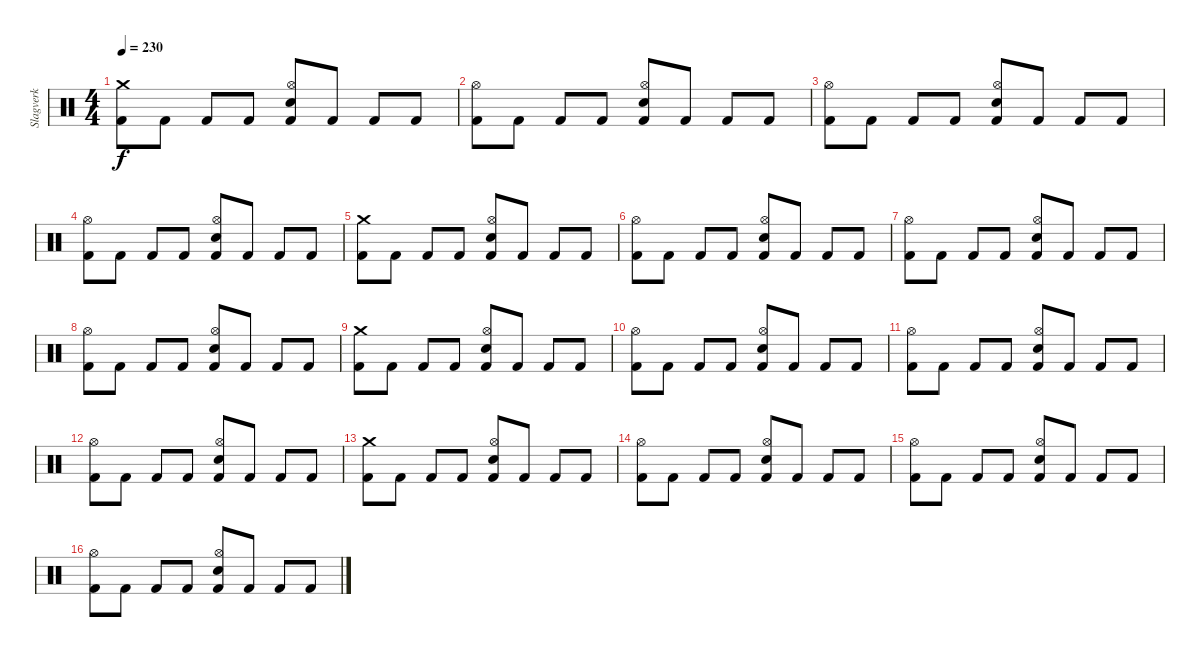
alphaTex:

\track ("Slagverk" "Slagverk") {instrument percussion}
\staff {score}
\articulation defaults
\ts (4 4)
\tempo 230
\clef neutral
\ks c
("Crash medium (hit)" "Kick (hit) 2").8{dy f} "Kick (hit) 2".8 "Kick (hit) 2".8 "Kick (hit) 2".8 ("Hi-Hat (open)" "Kick (hit) 2" "Snare (hit) 2").8 "Kick (hit) 2".8 "Kick (hit) 2".8 "Kick (hit) 2".8 |
("Kick (hit) 2" "Hi-Hat (open)").8 "Kick (hit) 2".8 "Kick (hit) 2".8 "Kick (hit) 2".8 ("Hi-Hat (open)" "Kick (hit) 2" "Snare (hit) 2").8 "Kick (hit) 2".8 "Kick (hit) 2".8 "Kick (hit) 2".8 |
("Kick (hit) 2" "Hi-Hat (open)").8 "Kick (hit) 2".8 "Kick (hit) 2".8 "Kick (hit) 2".8 ("Hi-Hat (open)" "Kick (hit) 2" "Snare (hit) 2").8 "Kick (hit) 2".8 "Kick (hit) 2".8 "Kick (hit) 2".8 |
("Kick (hit) 2" "Hi-Hat (open)").8 "Kick (hit) 2".8 "Kick (hit) 2".8 "Kick (hit) 2".8 ("Hi-Hat (open)" "Kick (hit) 2" "Snare (hit) 2").8 "Kick (hit) 2".8 "Kick (hit) 2".8 "Kick (hit) 2".8 |
("Crash medium (hit)" "Kick (hit) 2").8 "Kick (hit) 2".8 "Kick (hit) 2".8 "Kick (hit) 2".8 ("Hi-Hat (open)" "Kick (hit) 2" "Snare (hit) 2").8 "Kick (hit) 2".8 "Kick (hit) 2".8 "Kick (hit) 2".8 |
("Kick (hit) 2" "Hi-Hat (open)").8 "Kick (hit) 2".8 "Kick (hit) 2".8 "Kick (hit) 2".8 ("Hi-Hat (open)" "Kick (hit) 2" "Snare (hit) 2").8 "Kick (hit) 2".8 "Kick (hit) 2".8 "Kick (hit) 2".8 |
("Kick (hit) 2" "Hi-Hat (open)").8 "Kick (hit) 2".8 "Kick (hit) 2".8 "Kick (hit) 2".8 ("Hi-Hat (open)" "Kick (hit) 2" "Snare (hit) 2").8 "Kick (hit) 2".8 "Kick (hit) 2".8 "Kick (hit) 2".8 |
("Kick (hit) 2" "Hi-Hat (open)").8 "Kick (hit) 2".8 "Kick (hit) 2".8 "Kick (hit) 2".8 ("Hi-Hat (open)" "Kick (hit) 2" "Snare (hit) 2").8 "Kick (hit) 2".8 "Kick (hit) 2".8 "Kick (hit) 2".8 |
("Crash medium (hit)" "Kick (hit) 2").8 "Kick (hit) 2".8 "Kick (hit) 2".8 "Kick (hit) 2".8 ("Hi-Hat (open)" "Kick (hit) 2" "Snare (hit) 2").8 "Kick (hit) 2".8 "Kick (hit) 2".8 "Kick (hit) 2".8 |
("Kick (hit) 2" "Hi-Hat (open)").8 "Kick (hit) 2".8 "Kick (hit) 2".8 "Kick (hit) 2".8 ("Hi-Hat (open)" "Kick (hit) 2" "Snare (hit) 2").8 "Kick (hit) 2".8 "Kick (hit) 2".8 "Kick (hit) 2".8 |
("Kick (hit) 2" "Hi-Hat (open)").8 "Kick (hit) 2".8 "Kick (hit) 2".8 "Kick (hit) 2".8 ("Hi-Hat (open)" "Kick (hit) 2" "Snare (hit) 2").8 "Kick (hit) 2".8 "Kick (hit) 2".8 "Kick (hit) 2".8 |
("Kick (hit) 2" "Hi-Hat (open)").8 "Kick (hit) 2".8 "Kick (hit) 2".8 "Kick (hit) 2".8 ("Hi-Hat (open)" "Kick (hit) 2" "Snare (hit) 2").8 "Kick (hit) 2".8 "Kick (hit) 2".8 "Kick (hit) 2".8 |
("Crash medium (hit)" "Kick (hit) 2").8 "Kick (hit) 2".8 "Kick (hit) 2".8 "Kick (hit) 2".8 ("Hi-Hat (open)" "Kick (hit) 2" "Snare (hit) 2").8 "Kick (hit) 2".8 "Kick (hit) 2".8 "Kick (hit) 2".8 |
("Kick (hit) 2" "Hi-Hat (open)").8 "Kick (hit) 2".8 "Kick (hit) 2".8 "Kick (hit) 2".8 ("Hi-Hat (open)" "Kick (hit) 2" "Snare (hit) 2").8 "Kick (hit) 2".8 "Kick (hit) 2".8 "Kick (hit) 2".8 |
("Kick (hit) 2" "Hi-Hat (open)").8 "Kick (hit) 2".8 "Kick (hit) 2".8 "Kick (hit) 2".8 ("Hi-Hat (open)" "Kick (hit) 2" "Snare (hit) 2").8 "Kick (hit) 2".8 "Kick (hit) 2".8 "Kick (hit) 2".8 |
("Kick (hit) 2" "Hi-Hat (open)").8 "Kick (hit) 2".8 "Kick (hit) 2".8 "Kick (hit) 2".8 ("Hi-Hat (open)" "Kick (hit) 2" "Snare (hit) 2").8 "Kick (hit) 2".8 "Kick (hit) 2".8 "Kick (hit) 2".8
